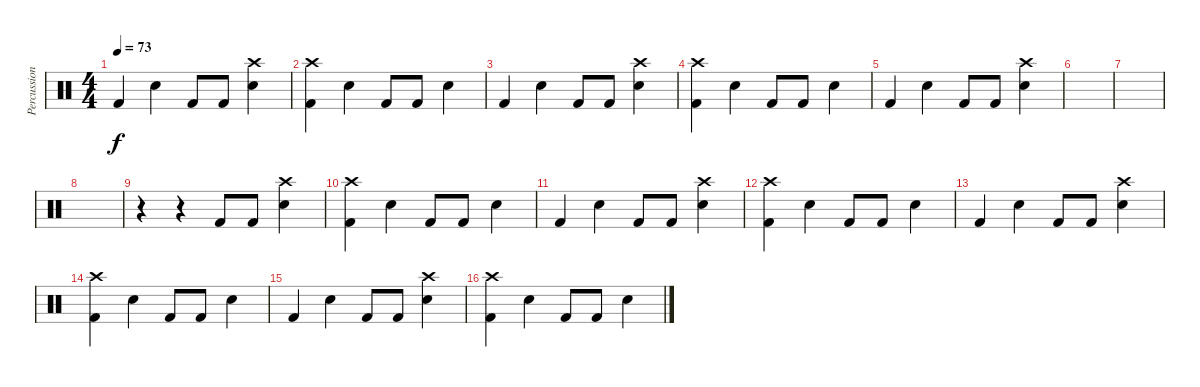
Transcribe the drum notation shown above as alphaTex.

\track ("Percussion" "Percussion") {instrument percussion}
\staff {score}
\articulation defaults
\ts (4 4)
\tempo 73
\clef neutral
\ks c "Kick (hit) 2".4{dy f} "Snare (hit) 2".4 "Kick (hit) 2".8 "Kick (hit) 2".8
("Snare (hit) 2" "Crash high (hit)").4 |
("Kick (hit) 2" "Crash high (hit)").4 "Snare (hit) 2".4 "Kick (hit) 2".8 "Kick (hit) 2".8 "Snare (hit) 2".4 |
"Kick (hit) 2".4 "Snare (hit) 2".4 "Kick (hit) 2".8 "Kick (hit) 2".8 ("Snare (hit) 2" "Crash high (hit)").4 |
("Kick (hit) 2" "Crash high (hit)").4 "Snare (hit) 2".4 "Kick (hit) 2".8 "Kick (hit) 2".8 "Snare (hit) 2".4 |
"Kick (hit) 2".4 "Snare (hit) 2".4 "Kick (hit) 2".8 "Kick (hit) 2".8 ("Snare (hit) 2" "Crash high (hit)").4 |
|
|
|
r.4 r.4 "Kick (hit) 2".8 "Kick (hit) 2".8 ("Snare (hit) 2" "Crash high (hit)").4 |
("Kick (hit) 2" "Crash high (hit)").4 "Snare (hit) 2".4 "Kick (hit) 2".8 "Kick (hit) 2".8 "Snare (hit) 2".4 |
"Kick (hit) 2".4 "Snare (hit) 2".4 "Kick (hit) 2".8 "Kick (hit) 2".8 ("Snare (hit) 2" "Crash high (hit)").4 |
("Kick (hit) 2" "Crash high (hit)").4 "Snare (hit) 2".4 "Kick (hit) 2".8 "Kick (hit) 2".8 "Snare (hit) 2".4 |
"Kick (hit) 2".4 "Snare (hit) 2".4 "Kick (hit) 2".8 "Kick (hit) 2".8 ("Snare (hit) 2" "Crash high (hit)").4 |
("Kick (hit) 2" "Crash high (hit)").4 "Snare (hit) 2".4 "Kick (hit) 2".8 "Kick (hit) 2".8 "Snare (hit) 2".4 |
"Kick (hit) 2".4 "Snare (hit) 2".4 "Kick (hit) 2".8 "Kick (hit) 2".8 ("Snare (hit) 2" "Crash high (hit)").4 |
("Kick (hit) 2" "Crash high (hit)").4 "Snare (hit) 2".4 "Kick (hit) 2".8 "Kick (hit) 2".8 "Snare (hit) 2".4
